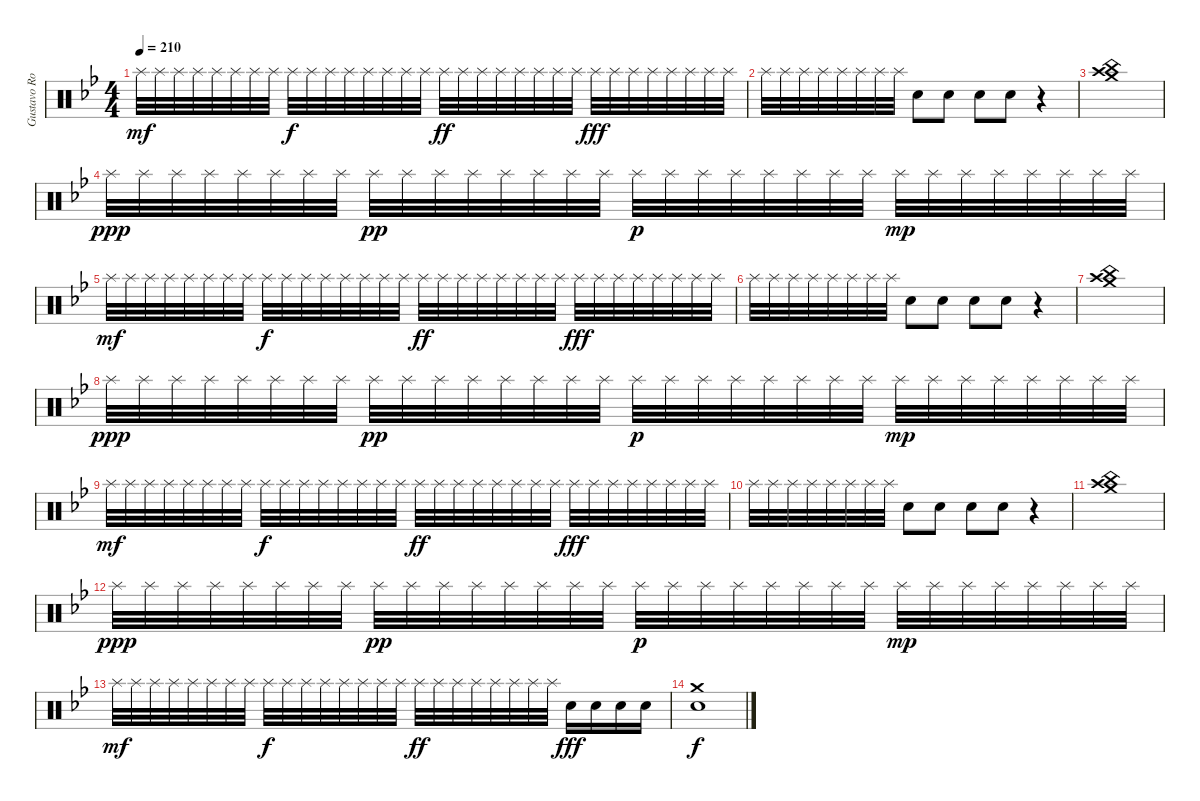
\track ("Gustavo Rowek" "Gustavo Ro") {instrument percussion}
\staff {score}
\articulation defaults
\ts (4 4)
\tempo 210
\clef neutral
\ks gminor "Splash (hit)".32{dy mf} "Splash (hit)".32 "Splash (hit)".32 "Splash (hit)".32 "Splash (hit)".32 "Splash (hit)".32 "Splash (hit)".32 "Splash (hit)".32 "Splash (hit)".32{dy f} "Splash (hit)".32 "Splash (hit)".32 "Splash (hit)".32 "Splash (hit)".32 "Splash (hit)".32 "Splash (hit)".32 "Splash (hit)".32 "Splash (hit)".32{dy ff} "Splash (hit)".32 "Splash (hit)".32 "Splash (hit)".32 "Splash (hit)".32 "Splash (hit)".32 "Splash (hit)".32 "Splash (hit)".32 "Splash (hit)".32{dy fff} "Splash (hit)".32 "Splash (hit)".32 "Splash (hit)".32 "Splash (hit)".32 "Splash (hit)".32 "Splash (hit)".32 "Splash (hit)".32
|
"Splash (hit)".32 "Splash (hit)".32 "Splash (hit)".32 "Splash (hit)".32 "Splash (hit)".32 "Splash (hit)".32 "Splash (hit)".32 "Splash (hit)".32 "Snare (hit) 2".8 "Snare (hit) 2".8 "Snare (hit) 2".8 "Snare (hit) 2".8 r.4 |
("China (hit)" "Crash high (hit)" "Crash medium (hit)").1 |
"Splash (hit)".32{dy ppp} "Splash (hit)".32 "Splash (hit)".32 "Splash (hit)".32 "Splash (hit)".32 "Splash (hit)".32 "Splash (hit)".32 "Splash (hit)".32 "Splash (hit)".32{dy pp} "Splash (hit)".32 "Splash (hit)".32 "Splash (hit)".32 "Splash (hit)".32 "Splash (hit)".32 "Splash (hit)".32 "Splash (hit)".32 "Splash (hit)".32{dy p} "Splash (hit)".32 "Splash (hit)".32 "Splash (hit)".32 "Splash (hit)".32 "Splash (hit)".32 "Splash (hit)".32 "Splash (hit)".32 "Splash (hit)".32{dy mp} "Splash (hit)".32 "Splash (hit)".32 "Splash (hit)".32 "Splash (hit)".32 "Splash (hit)".32 "Splash (hit)".32 "Splash (hit)".32 |
"Splash (hit)".32{dy mf} "Splash (hit)".32 "Splash (hit)".32 "Splash (hit)".32 "Splash (hit)".32 "Splash (hit)".32 "Splash (hit)".32 "Splash (hit)".32 "Splash (hit)".32{dy f} "Splash (hit)".32 "Splash (hit)".32 "Splash (hit)".32 "Splash (hit)".32 "Splash (hit)".32 "Splash (hit)".32 "Splash (hit)".32 "Splash (hit)".32{dy ff} "Splash (hit)".32 "Splash (hit)".32 "Splash (hit)".32 "Splash (hit)".32 "Splash (hit)".32 "Splash (hit)".32 "Splash (hit)".32 "Splash (hit)".32{dy fff} "Splash (hit)".32 "Splash (hit)".32 "Splash (hit)".32 "Splash (hit)".32 "Splash (hit)".32 "Splash (hit)".32 "Splash (hit)".32 |
"Splash (hit)".32 "Splash (hit)".32 "Splash (hit)".32 "Splash (hit)".32 "Splash (hit)".32 "Splash (hit)".32 "Splash (hit)".32 "Splash (hit)".32 "Snare (hit) 2".8 "Snare (hit) 2".8 "Snare (hit) 2".8 "Snare (hit) 2".8 r.4 |
("China (hit)" "Crash high (hit)" "Crash medium (hit)").1 |
"Splash (hit)".32{dy ppp} "Splash (hit)".32 "Splash (hit)".32 "Splash (hit)".32 "Splash (hit)".32 "Splash (hit)".32 "Splash (hit)".32 "Splash (hit)".32 "Splash (hit)".32{dy pp} "Splash (hit)".32 "Splash (hit)".32 "Splash (hit)".32 "Splash (hit)".32 "Splash (hit)".32 "Splash (hit)".32 "Splash (hit)".32 "Splash (hit)".32{dy p} "Splash (hit)".32 "Splash (hit)".32 "Splash (hit)".32 "Splash (hit)".32 "Splash (hit)".32 "Splash (hit)".32 "Splash (hit)".32 "Splash (hit)".32{dy mp} "Splash (hit)".32 "Splash (hit)".32 "Splash (hit)".32 "Splash (hit)".32 "Splash (hit)".32 "Splash (hit)".32 "Splash (hit)".32 |
"Splash (hit)".32{dy mf} "Splash (hit)".32 "Splash (hit)".32 "Splash (hit)".32 "Splash (hit)".32 "Splash (hit)".32 "Splash (hit)".32 "Splash (hit)".32 "Splash (hit)".32{dy f} "Splash (hit)".32 "Splash (hit)".32 "Splash (hit)".32 "Splash (hit)".32 "Splash (hit)".32 "Splash (hit)".32 "Splash (hit)".32 "Splash (hit)".32{dy ff} "Splash (hit)".32 "Splash (hit)".32 "Splash (hit)".32 "Splash (hit)".32 "Splash (hit)".32 "Splash (hit)".32 "Splash (hit)".32 "Splash (hit)".32{dy fff} "Splash (hit)".32 "Splash (hit)".32 "Splash (hit)".32 "Splash (hit)".32 "Splash (hit)".32 "Splash (hit)".32 "Splash (hit)".32 |
"Splash (hit)".32 "Splash (hit)".32 "Splash (hit)".32 "Splash (hit)".32 "Splash (hit)".32 "Splash (hit)".32 "Splash (hit)".32 "Splash (hit)".32 "Snare (hit) 2".8 "Snare (hit) 2".8 "Snare (hit) 2".8 "Snare (hit) 2".8 r.4 |
("China (hit)" "Crash high (hit)" "Crash medium (hit)").1 |
"Splash (hit)".32{dy ppp} "Splash (hit)".32 "Splash (hit)".32 "Splash (hit)".32 "Splash (hit)".32 "Splash (hit)".32 "Splash (hit)".32 "Splash (hit)".32 "Splash (hit)".32{dy pp} "Splash (hit)".32 "Splash (hit)".32 "Splash (hit)".32 "Splash (hit)".32 "Splash (hit)".32 "Splash (hit)".32 "Splash (hit)".32 "Splash (hit)".32{dy p} "Splash (hit)".32 "Splash (hit)".32 "Splash (hit)".32 "Splash (hit)".32 "Splash (hit)".32 "Splash (hit)".32 "Splash (hit)".32 "Splash (hit)".32{dy mp} "Splash (hit)".32 "Splash (hit)".32 "Splash (hit)".32 "Splash (hit)".32 "Splash (hit)".32 "Splash (hit)".32 "Splash (hit)".32 |
"Splash (hit)".32{dy mf} "Splash (hit)".32 "Splash (hit)".32 "Splash (hit)".32 "Splash (hit)".32 "Splash (hit)".32 "Splash (hit)".32 "Splash (hit)".32 "Splash (hit)".32{dy f} "Splash (hit)".32 "Splash (hit)".32 "Splash (hit)".32 "Splash (hit)".32 "Splash (hit)".32 "Splash (hit)".32 "Splash (hit)".32 "Splash (hit)".32{dy ff} "Splash (hit)".32 "Splash (hit)".32 "Splash (hit)".32 "Splash (hit)".32 "Splash (hit)".32 "Splash (hit)".32 "Splash (hit)".32 "Snare (hit) 2".16{dy fff} "Snare (hit) 2".16 "Snare (hit) 2".16 "Snare (hit) 2".16 |
("Crash medium (hit)" "Snare (hit) 2").1{dy f}
